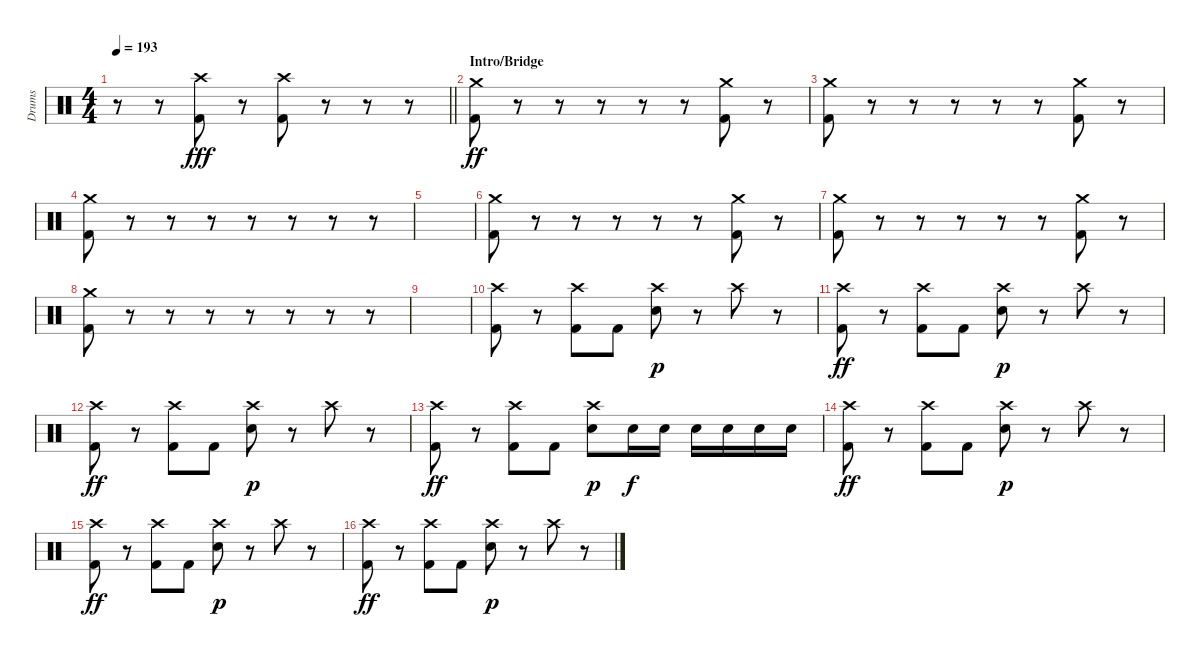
\track ("Drums" "Drums") {instrument percussion}
\staff {score}
\articulation defaults
\ts (4 4)
\tempo 193
\clef neutral
\barLineRight lightlight
\ks c
r.8{dy fff} r.8 ("Crash high (hit)" "Kick (hit) 2").8 r.8 ("Crash high (hit)" "Kick (hit) 2").8 r.8 r.8 r.8 |
\section ("" "Intro/Bridge")
("Crash medium (hit)" "Kick (hit) 2").8{dy ff} r.8 r.8 r.8 r.8 r.8 ("Crash medium (hit)" "Kick (hit) 2").8 r.8 |
("Crash medium (hit)" "Kick (hit) 2").8 r.8 r.8 r.8 r.8 r.8 ("Crash medium (hit)" "Kick (hit) 2").8 r.8 |
("Crash medium (hit)" "Kick (hit) 2").8 r.8 r.8 r.8 r.8 r.8 r.8 r.8 |
|
("Crash medium (hit)" "Kick (hit) 2").8 r.8 r.8 r.8 r.8 r.8 ("Crash medium (hit)" "Kick (hit) 2").8 r.8 |
("Crash medium (hit)" "Kick (hit) 2").8 r.8 r.8 r.8 r.8 r.8 ("Crash medium (hit)" "Kick (hit) 2").8 r.8 |
("Crash medium (hit)" "Kick (hit) 2").8 r.8 r.8 r.8 r.8 r.8 r.8 r.8 |
|
("Crash high (hit)" "Kick (hit) 2").8 r.8 ("Crash high (hit)" "Kick (hit) 2").8 "Kick (hit) 2".8 ("Crash high (hit)" "Snare (hit) 2").8{dy p} r.8 "Crash high (hit)".8 r.8 |
("Crash high (hit)" "Kick (hit) 2").8{dy ff} r.8 ("Crash high (hit)" "Kick (hit) 2").8 "Kick (hit) 2".8 ("Crash high (hit)" "Snare (hit) 2").8{dy p} r.8 "Crash high (hit)".8 r.8 |
("Crash high (hit)" "Kick (hit) 2").8{dy ff} r.8 ("Crash high (hit)" "Kick (hit) 2").8 "Kick (hit) 2".8 ("Crash high (hit)" "Snare (hit) 2").8{dy p} r.8 "Crash high (hit)".8 r.8 |
("Crash high (hit)" "Kick (hit) 2").8{dy ff} r.8 ("Crash high (hit)" "Kick (hit) 2").8 "Kick (hit) 2".8 ("Crash high (hit)" "Snare (hit) 2").8{dy p} "Snare (hit) 2".16{dy f} "Snare (hit) 2".16 "Snare (hit) 2".16 "Snare (hit) 2".16 "Snare (hit) 2".16 "Snare (hit) 2".16 |
("Crash high (hit)" "Kick (hit) 2").8{dy ff} r.8 ("Crash high (hit)" "Kick (hit) 2").8 "Kick (hit) 2".8 ("Crash high (hit)" "Snare (hit) 2").8{dy p} r.8 "Crash high (hit)".8 r.8 |
("Crash high (hit)" "Kick (hit) 2").8{dy ff} r.8 ("Crash high (hit)" "Kick (hit) 2").8 "Kick (hit) 2".8 ("Crash high (hit)" "Snare (hit) 2").8{dy p} r.8 "Crash high (hit)".8 r.8 |
("Crash high (hit)" "Kick (hit) 2").8{dy ff} r.8 ("Crash high (hit)" "Kick (hit) 2").8 "Kick (hit) 2".8 ("Crash high (hit)" "Snare (hit) 2").8{dy p} r.8 "Crash high (hit)".8 r.8
